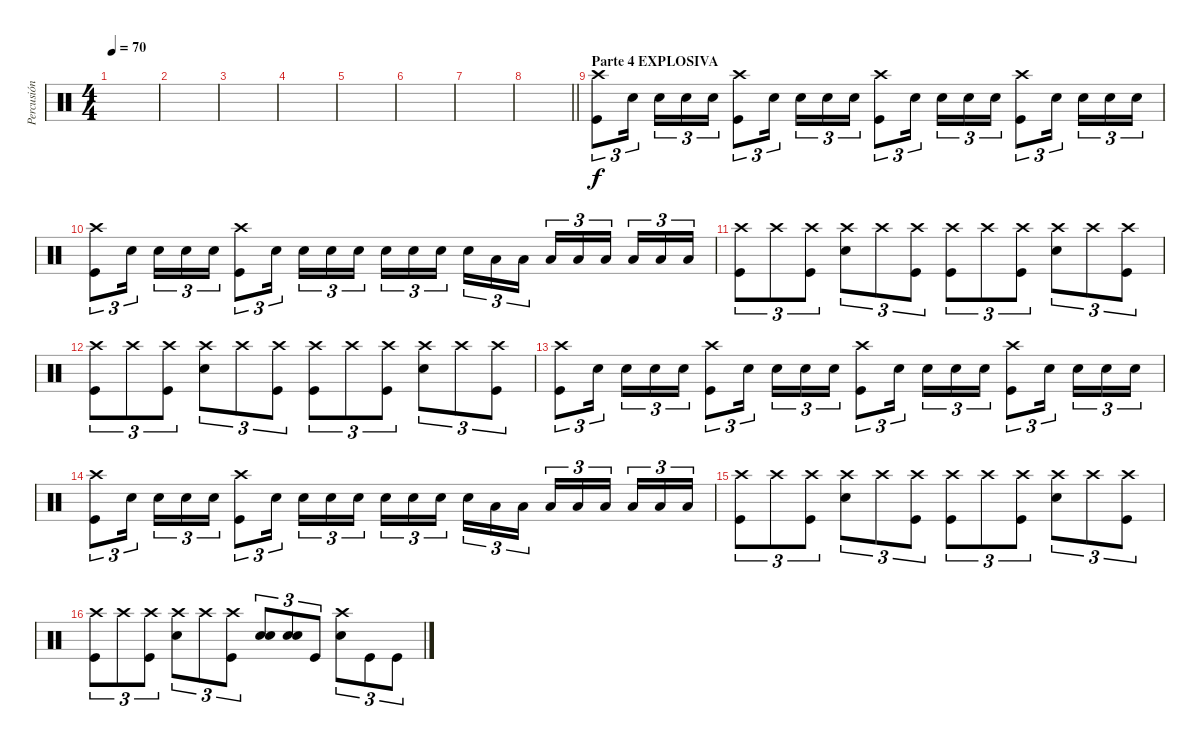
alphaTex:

\track ("Percusión" "Percusión") {instrument percussion}
\staff {score}
\articulation defaults
\ts (4 4)
\tempo 70
\clef neutral
\ks c
|
|
|
|
|
|
|
\barLineRight lightlight
|
\section ("" "Parte 4 EXPLOSIVA")
("Kick (hit)" "Crash high (hit)").8{tu (3 2)} "Snare (hit) 2".16{tu (3 2) beam splitsecondary} "Snare (hit) 2".16{tu (3 2)} "Snare (hit) 2".16{tu (3 2)} "Snare (hit) 2".16{tu (3 2)} ("Kick (hit)" "Crash high (hit)").8{tu (3 2)} "Snare (hit) 2".16{tu (3 2) beam splitsecondary} "Snare (hit) 2".16{tu (3 2)} "Snare (hit) 2".16{tu (3 2)} "Snare (hit) 2".16{tu (3 2)} ("Kick (hit)" "Crash high (hit)").8{tu (3 2)} "Snare (hit) 2".16{tu (3 2) beam splitsecondary} "Snare (hit) 2".16{tu (3 2)} "Snare (hit) 2".16{tu (3 2)} "Snare (hit) 2".16{tu (3 2)} ("Kick (hit)" "Crash high (hit)").8{tu (3 2)} "Snare (hit) 2".16{tu (3 2) beam splitsecondary} "Snare (hit) 2".16{tu (3 2)} "Snare (hit) 2".16{tu (3 2)} "Snare (hit) 2".16{tu (3 2)} |
("Kick (hit)" "Crash high (hit)").8{tu (3 2)} "Snare (hit) 2".16{tu (3 2) beam splitsecondary} "Snare (hit) 2".16{tu (3 2)} "Snare (hit) 2".16{tu (3 2)} "Snare (hit) 2".16{tu (3 2)} ("Kick (hit)" "Crash high (hit)").8{tu (3 2)} "Snare (hit) 2".16{tu (3 2) beam splitsecondary} "Snare (hit) 2".16{tu (3 2)} "Snare (hit) 2".16{tu (3 2)} "Snare (hit) 2".16{tu (3 2)} "Snare (hit) 2".16{tu (3 2)} "Snare (hit) 2".16{tu (3 2)} "Snare (hit) 2".16{tu (3 2) beam splitsecondary} "Snare (hit) 2".16{tu (3 2)} "Low Tom (hit)".16{tu (3 2)} "Low Tom (hit)".16{tu (3 2)} "Low Tom (hit)".16{tu (3 2)} "Low Tom (hit)".16{tu (3 2)} "Low Floor Tom (hit)".16{tu (3 2) beam splitsecondary} "Low Floor Tom (hit)".16{tu (3 2)} "Low Floor Tom (hit)".16{tu (3 2)} "Low Floor Tom (hit)".16{tu (3 2)} |
("Crash high (hit)" "Kick (hit)").8{tu (3 2)} "Crash high (hit)".8{tu (3 2)} ("Crash high (hit)" "Kick (hit)").8{tu (3 2)} ("Crash high (hit)" "Snare (hit) 2").8{tu (3 2)} "Crash high (hit)".8{tu (3 2)} ("Crash high (hit)" "Kick (hit)").8{tu (3 2)} ("Crash high (hit)" "Kick (hit)").8{tu (3 2)} "Crash high (hit)".8{tu (3 2)} ("Crash high (hit)" "Kick (hit)").8{tu (3 2)} ("Crash high (hit)" "Snare (hit) 2").8{tu (3 2)} "Crash high (hit)".8{tu (3 2)} ("Crash high (hit)" "Kick (hit)").8{tu (3 2)} |
("Crash high (hit)" "Kick (hit)").8{tu (3 2)} "Crash high (hit)".8{tu (3 2)} ("Crash high (hit)" "Kick (hit)").8{tu (3 2)} ("Crash high (hit)" "Snare (hit) 2").8{tu (3 2)} "Crash high (hit)".8{tu (3 2)} ("Crash high (hit)" "Kick (hit)").8{tu (3 2)} ("Crash high (hit)" "Kick (hit)").8{tu (3 2)} "Crash high (hit)".8{tu (3 2)} ("Crash high (hit)" "Kick (hit)").8{tu (3 2)} ("Crash high (hit)" "Snare (hit) 2").8{tu (3 2)} "Crash high (hit)".8{tu (3 2)} ("Crash high (hit)" "Kick (hit)").8{tu (3 2)} |
("Kick (hit)" "Crash high (hit)").8{tu (3 2)} "Snare (hit) 2".16{tu (3 2) beam splitsecondary} "Snare (hit) 2".16{tu (3 2)} "Snare (hit) 2".16{tu (3 2)} "Snare (hit) 2".16{tu (3 2)} ("Kick (hit)" "Crash high (hit)").8{tu (3 2)} "Snare (hit) 2".16{tu (3 2) beam splitsecondary} "Snare (hit) 2".16{tu (3 2)} "Snare (hit) 2".16{tu (3 2)} "Snare (hit) 2".16{tu (3 2)} ("Kick (hit)" "Crash high (hit)").8{tu (3 2)} "Snare (hit) 2".16{tu (3 2) beam splitsecondary} "Snare (hit) 2".16{tu (3 2)} "Snare (hit) 2".16{tu (3 2)} "Snare (hit) 2".16{tu (3 2)} ("Kick (hit)" "Crash high (hit)").8{tu (3 2)} "Snare (hit) 2".16{tu (3 2) beam splitsecondary} "Snare (hit) 2".16{tu (3 2)} "Snare (hit) 2".16{tu (3 2)} "Snare (hit) 2".16{tu (3 2)} |
("Kick (hit)" "Crash high (hit)").8{tu (3 2)} "Snare (hit) 2".16{tu (3 2) beam splitsecondary} "Snare (hit) 2".16{tu (3 2)} "Snare (hit) 2".16{tu (3 2)} "Snare (hit) 2".16{tu (3 2)} ("Kick (hit)" "Crash high (hit)").8{tu (3 2)} "Snare (hit) 2".16{tu (3 2) beam splitsecondary} "Snare (hit) 2".16{tu (3 2)} "Snare (hit) 2".16{tu (3 2)} "Snare (hit) 2".16{tu (3 2)} "Snare (hit) 2".16{tu (3 2)} "Snare (hit) 2".16{tu (3 2)} "Snare (hit) 2".16{tu (3 2) beam splitsecondary} "Snare (hit) 2".16{tu (3 2)} "Low Tom (hit)".16{tu (3 2)} "Low Tom (hit)".16{tu (3 2)} "Low Tom (hit)".16{tu (3 2)} "Low Tom (hit)".16{tu (3 2)} "Low Floor Tom (hit)".16{tu (3 2) beam splitsecondary} "Low Floor Tom (hit)".16{tu (3 2)} "Low Floor Tom (hit)".16{tu (3 2)} "Low Floor Tom (hit)".16{tu (3 2)} |
("Crash high (hit)" "Kick (hit)").8{tu (3 2)} "Crash high (hit)".8{tu (3 2)} ("Crash high (hit)" "Kick (hit)").8{tu (3 2)} ("Crash high (hit)" "Snare (hit) 2").8{tu (3 2)} "Crash high (hit)".8{tu (3 2)} ("Crash high (hit)" "Kick (hit)").8{tu (3 2)} ("Crash high (hit)" "Kick (hit)").8{tu (3 2)} "Crash high (hit)".8{tu (3 2)} ("Crash high (hit)" "Kick (hit)").8{tu (3 2)} ("Crash high (hit)" "Snare (hit) 2").8{tu (3 2)} "Crash high (hit)".8{tu (3 2)} ("Crash high (hit)" "Kick (hit)").8{tu (3 2)} |
("Crash high (hit)" "Kick (hit)").8{tu (3 2)} "Crash high (hit)".8{tu (3 2)} ("Crash high (hit)" "Kick (hit)").8{tu (3 2)} ("Crash high (hit)" "Snare (hit) 2").8{tu (3 2)} "Crash high (hit)".8{tu (3 2)} ("Crash high (hit)" "Kick (hit)").8{tu (3 2)} ("Snare (hit) 2" "Snare (hit) 2").8{tu (3 2)} ("Snare (hit) 2" "Snare (hit) 2").8{tu (3 2)} "Kick (hit)".8{tu (3 2)} ("Snare (hit) 2" "Crash high (hit)").8{tu (3 2)} "Kick (hit)".8{tu (3 2)} "Kick (hit)".8{tu (3 2)}
